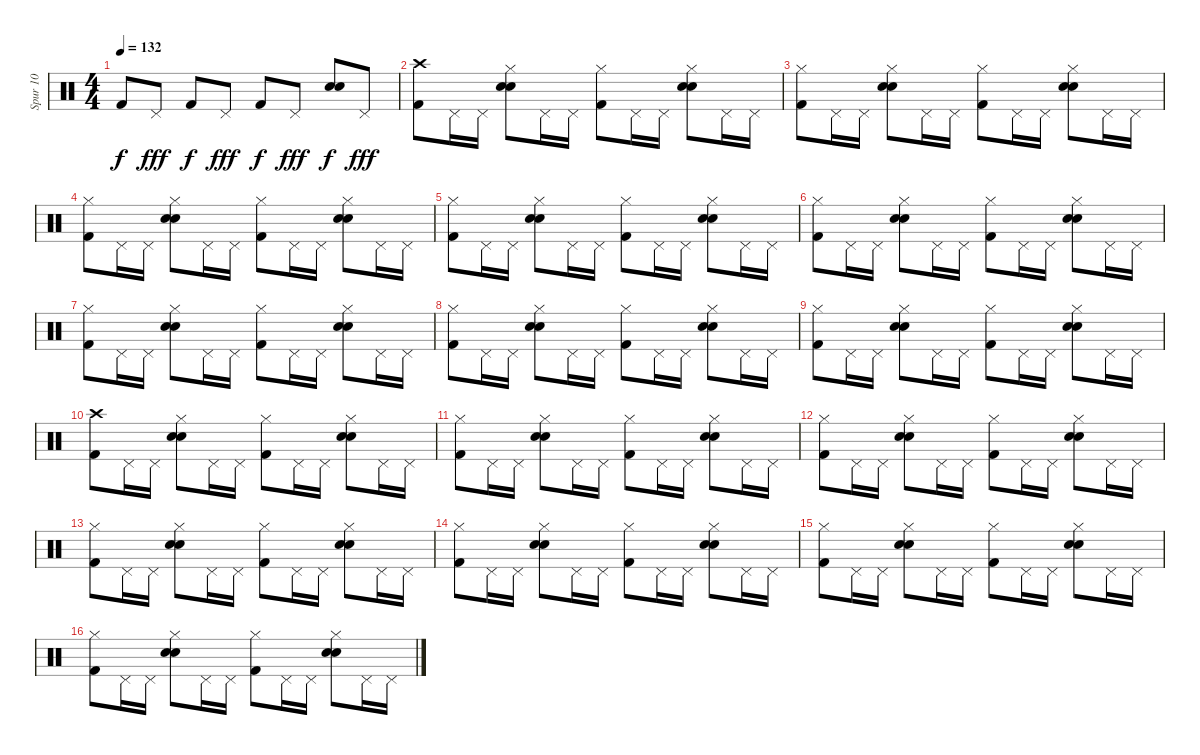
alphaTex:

\track ("Spur 10" "Spur 10") {instrument percussion}
\staff {score}
\articulation defaults
\ts (4 4)
\tempo 132
\clef neutral
\ks c "Kick (hit) 2".8{dy f} "Pedal Hi-Hat (hit)".8{dy fff} "Kick (hit) 2".8{dy f} "Pedal Hi-Hat (hit)".8{dy fff} "Kick (hit) 2".8{dy f} "Pedal Hi-Hat (hit)".8{dy fff}
("Hand Clap (hit)" "Electric Snare (hit)").8{dy f} "Pedal Hi-Hat (hit)".8{dy fff} |
("Crash high (hit)" "Kick (hit) 2").8 "Pedal Hi-Hat (hit)".16 "Pedal Hi-Hat (hit)".16 ("Electric Snare (hit)" "Hi-Hat (closed)" "Hand Clap (hit)").8 "Pedal Hi-Hat (hit)".16 "Pedal Hi-Hat (hit)".16 ("Kick (hit) 2" "Hi-Hat (closed)").8 "Pedal Hi-Hat (hit)".16 "Pedal Hi-Hat (hit)".16 ("Electric Snare (hit)" "Hi-Hat (closed)" "Hand Clap (hit)").8 "Pedal Hi-Hat (hit)".16 "Pedal Hi-Hat (hit)".16 |
("Kick (hit) 2" "Hi-Hat (closed)").8 "Pedal Hi-Hat (hit)".16 "Pedal Hi-Hat (hit)".16 ("Electric Snare (hit)" "Hi-Hat (closed)" "Hand Clap (hit)").8 "Pedal Hi-Hat (hit)".16 "Pedal Hi-Hat (hit)".16 ("Kick (hit) 2" "Hi-Hat (closed)").8 "Pedal Hi-Hat (hit)".16 "Pedal Hi-Hat (hit)".16 ("Electric Snare (hit)" "Hi-Hat (closed)" "Hand Clap (hit)").8 "Pedal Hi-Hat (hit)".16 "Pedal Hi-Hat (hit)".16 |
("Kick (hit) 2" "Hi-Hat (closed)").8 "Pedal Hi-Hat (hit)".16 "Pedal Hi-Hat (hit)".16 ("Electric Snare (hit)" "Hi-Hat (closed)" "Hand Clap (hit)").8 "Pedal Hi-Hat (hit)".16 "Pedal Hi-Hat (hit)".16 ("Kick (hit) 2" "Hi-Hat (closed)").8 "Pedal Hi-Hat (hit)".16 "Pedal Hi-Hat (hit)".16 ("Electric Snare (hit)" "Hi-Hat (closed)" "Hand Clap (hit)").8 "Pedal Hi-Hat (hit)".16 "Pedal Hi-Hat (hit)".16 |
("Kick (hit) 2" "Hi-Hat (closed)").8 "Pedal Hi-Hat (hit)".16 "Pedal Hi-Hat (hit)".16 ("Electric Snare (hit)" "Hi-Hat (closed)" "Hand Clap (hit)").8 "Pedal Hi-Hat (hit)".16 "Pedal Hi-Hat (hit)".16 ("Kick (hit) 2" "Hi-Hat (closed)").8 "Pedal Hi-Hat (hit)".16 "Pedal Hi-Hat (hit)".16 ("Electric Snare (hit)" "Hi-Hat (closed)" "Hand Clap (hit)").8 "Pedal Hi-Hat (hit)".16 "Pedal Hi-Hat (hit)".16 |
("Kick (hit) 2" "Hi-Hat (closed)").8 "Pedal Hi-Hat (hit)".16 "Pedal Hi-Hat (hit)".16 ("Electric Snare (hit)" "Hi-Hat (closed)" "Hand Clap (hit)").8 "Pedal Hi-Hat (hit)".16 "Pedal Hi-Hat (hit)".16 ("Kick (hit) 2" "Hi-Hat (closed)").8 "Pedal Hi-Hat (hit)".16 "Pedal Hi-Hat (hit)".16 ("Electric Snare (hit)" "Hi-Hat (closed)" "Hand Clap (hit)").8 "Pedal Hi-Hat (hit)".16 "Pedal Hi-Hat (hit)".16 |
("Kick (hit) 2" "Hi-Hat (closed)").8 "Pedal Hi-Hat (hit)".16 "Pedal Hi-Hat (hit)".16 ("Electric Snare (hit)" "Hi-Hat (closed)" "Hand Clap (hit)").8 "Pedal Hi-Hat (hit)".16 "Pedal Hi-Hat (hit)".16 ("Kick (hit) 2" "Hi-Hat (closed)").8 "Pedal Hi-Hat (hit)".16 "Pedal Hi-Hat (hit)".16 ("Electric Snare (hit)" "Hi-Hat (closed)" "Hand Clap (hit)").8 "Pedal Hi-Hat (hit)".16 "Pedal Hi-Hat (hit)".16 |
("Kick (hit) 2" "Hi-Hat (closed)").8 "Pedal Hi-Hat (hit)".16 "Pedal Hi-Hat (hit)".16 ("Electric Snare (hit)" "Hi-Hat (closed)" "Hand Clap (hit)").8 "Pedal Hi-Hat (hit)".16 "Pedal Hi-Hat (hit)".16 ("Kick (hit) 2" "Hi-Hat (closed)").8 "Pedal Hi-Hat (hit)".16 "Pedal Hi-Hat (hit)".16 ("Electric Snare (hit)" "Hi-Hat (closed)" "Hand Clap (hit)").8 "Pedal Hi-Hat (hit)".16 "Pedal Hi-Hat (hit)".16 |
("Kick (hit) 2" "Hi-Hat (closed)").8 "Pedal Hi-Hat (hit)".16 "Pedal Hi-Hat (hit)".16 ("Electric Snare (hit)" "Hi-Hat (closed)" "Hand Clap (hit)").8 "Pedal Hi-Hat (hit)".16 "Pedal Hi-Hat (hit)".16 ("Kick (hit) 2" "Hi-Hat (closed)").8 "Pedal Hi-Hat (hit)".16 "Pedal Hi-Hat (hit)".16 ("Electric Snare (hit)" "Hi-Hat (closed)" "Hand Clap (hit)").8 "Pedal Hi-Hat (hit)".16 "Pedal Hi-Hat (hit)".16 |
("Crash high (hit)" "Kick (hit) 2").8 "Pedal Hi-Hat (hit)".16 "Pedal Hi-Hat (hit)".16 ("Electric Snare (hit)" "Hi-Hat (closed)" "Hand Clap (hit)").8 "Pedal Hi-Hat (hit)".16 "Pedal Hi-Hat (hit)".16 ("Kick (hit) 2" "Hi-Hat (closed)").8 "Pedal Hi-Hat (hit)".16 "Pedal Hi-Hat (hit)".16 ("Electric Snare (hit)" "Hi-Hat (closed)" "Hand Clap (hit)").8 "Pedal Hi-Hat (hit)".16 "Pedal Hi-Hat (hit)".16 |
("Kick (hit) 2" "Hi-Hat (closed)").8 "Pedal Hi-Hat (hit)".16 "Pedal Hi-Hat (hit)".16 ("Electric Snare (hit)" "Hi-Hat (closed)" "Hand Clap (hit)").8 "Pedal Hi-Hat (hit)".16 "Pedal Hi-Hat (hit)".16 ("Kick (hit) 2" "Hi-Hat (closed)").8 "Pedal Hi-Hat (hit)".16 "Pedal Hi-Hat (hit)".16 ("Electric Snare (hit)" "Hi-Hat (closed)" "Hand Clap (hit)").8 "Pedal Hi-Hat (hit)".16 "Pedal Hi-Hat (hit)".16 |
("Kick (hit) 2" "Hi-Hat (closed)").8 "Pedal Hi-Hat (hit)".16 "Pedal Hi-Hat (hit)".16 ("Electric Snare (hit)" "Hi-Hat (closed)" "Hand Clap (hit)").8 "Pedal Hi-Hat (hit)".16 "Pedal Hi-Hat (hit)".16 ("Kick (hit) 2" "Hi-Hat (closed)").8 "Pedal Hi-Hat (hit)".16 "Pedal Hi-Hat (hit)".16 ("Electric Snare (hit)" "Hi-Hat (closed)" "Hand Clap (hit)").8 "Pedal Hi-Hat (hit)".16 "Pedal Hi-Hat (hit)".16 |
("Kick (hit) 2" "Hi-Hat (closed)").8 "Pedal Hi-Hat (hit)".16 "Pedal Hi-Hat (hit)".16 ("Electric Snare (hit)" "Hi-Hat (closed)" "Hand Clap (hit)").8 "Pedal Hi-Hat (hit)".16 "Pedal Hi-Hat (hit)".16 ("Kick (hit) 2" "Hi-Hat (closed)").8 "Pedal Hi-Hat (hit)".16 "Pedal Hi-Hat (hit)".16 ("Electric Snare (hit)" "Hi-Hat (closed)" "Hand Clap (hit)").8 "Pedal Hi-Hat (hit)".16 "Pedal Hi-Hat (hit)".16 |
("Kick (hit) 2" "Hi-Hat (closed)").8 "Pedal Hi-Hat (hit)".16 "Pedal Hi-Hat (hit)".16 ("Electric Snare (hit)" "Hi-Hat (closed)" "Hand Clap (hit)").8 "Pedal Hi-Hat (hit)".16 "Pedal Hi-Hat (hit)".16 ("Kick (hit) 2" "Hi-Hat (closed)").8 "Pedal Hi-Hat (hit)".16 "Pedal Hi-Hat (hit)".16 ("Electric Snare (hit)" "Hi-Hat (closed)" "Hand Clap (hit)").8 "Pedal Hi-Hat (hit)".16 "Pedal Hi-Hat (hit)".16 |
("Kick (hit) 2" "Hi-Hat (closed)").8 "Pedal Hi-Hat (hit)".16 "Pedal Hi-Hat (hit)".16 ("Electric Snare (hit)" "Hi-Hat (closed)" "Hand Clap (hit)").8 "Pedal Hi-Hat (hit)".16 "Pedal Hi-Hat (hit)".16 ("Kick (hit) 2" "Hi-Hat (closed)").8 "Pedal Hi-Hat (hit)".16 "Pedal Hi-Hat (hit)".16 ("Electric Snare (hit)" "Hi-Hat (closed)" "Hand Clap (hit)").8 "Pedal Hi-Hat (hit)".16 "Pedal Hi-Hat (hit)".16 |
("Kick (hit) 2" "Hi-Hat (closed)").8 "Pedal Hi-Hat (hit)".16 "Pedal Hi-Hat (hit)".16 ("Electric Snare (hit)" "Hi-Hat (closed)" "Hand Clap (hit)").8 "Pedal Hi-Hat (hit)".16 "Pedal Hi-Hat (hit)".16 ("Kick (hit) 2" "Hi-Hat (closed)").8 "Pedal Hi-Hat (hit)".16 "Pedal Hi-Hat (hit)".16 ("Electric Snare (hit)" "Hi-Hat (closed)" "Hand Clap (hit)").8 "Pedal Hi-Hat (hit)".16 "Pedal Hi-Hat (hit)".16
